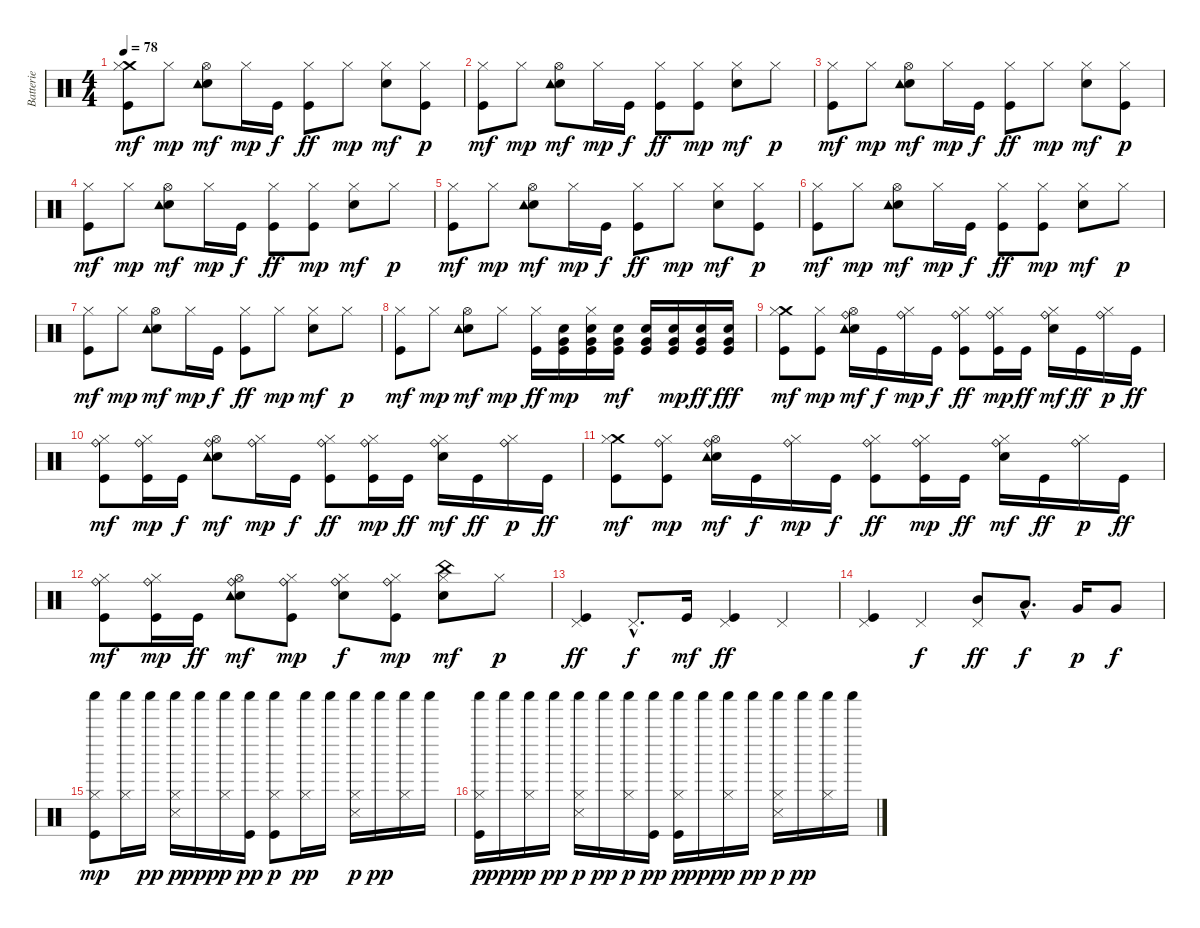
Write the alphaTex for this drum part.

\track ("Batterie" "Batterie") {instrument percussion}
\staff {score}
\articulation defaults
\ts (4 4)
\tempo 78
\clef neutral
\ks c
("Crash medium (hit)" "Kick (hit)" "Hi-Hat (closed)").8{dy mf} "Hi-Hat (closed)".8{dy mp} ("Hi-Hat (open)" "Electric Snare (hit)" "Tambourine (hit)").8{dy mf} "Hi-Hat (closed)".16{dy mp} "Kick (hit)".16{dy f} ("Kick (hit)" "Hi-Hat (closed)").8{dy ff} "Hi-Hat (closed)".8{dy mp} ("Electric Snare (hit)" "Hi-Hat (closed)").8{dy mf} ("Kick (hit)" "Hi-Hat (closed)").8{dy p} |
("Kick (hit)" "Hi-Hat (closed)").8{dy mf} "Hi-Hat (closed)".8{dy mp} ("Hi-Hat (open)" "Electric Snare (hit)" "Tambourine (hit)").8{dy mf} "Hi-Hat (closed)".16{dy mp} "Kick (hit)".16{dy f} ("Kick (hit)" "Hi-Hat (closed)").8{dy ff} ("Kick (hit)" "Hi-Hat (closed)").8{dy mp} ("Electric Snare (hit)" "Hi-Hat (closed)").8{dy mf} "Hi-Hat (closed)".8{dy p} |
("Kick (hit)" "Hi-Hat (closed)").8{dy mf} "Hi-Hat (closed)".8{dy mp} ("Hi-Hat (open)" "Electric Snare (hit)" "Tambourine (hit)").8{dy mf} "Hi-Hat (closed)".16{dy mp} "Kick (hit)".16{dy f} ("Kick (hit)" "Hi-Hat (closed)").8{dy ff} "Hi-Hat (closed)".8{dy mp} ("Electric Snare (hit)" "Hi-Hat (closed)").8{dy mf} ("Kick (hit)" "Hi-Hat (closed)").8{dy p} |
("Kick (hit)" "Hi-Hat (closed)").8{dy mf} "Hi-Hat (closed)".8{dy mp} ("Hi-Hat (open)" "Electric Snare (hit)" "Tambourine (hit)").8{dy mf} "Hi-Hat (closed)".16{dy mp} "Kick (hit)".16{dy f} ("Kick (hit)" "Hi-Hat (closed)").8{dy ff} ("Kick (hit)" "Hi-Hat (closed)").8{dy mp} ("Electric Snare (hit)" "Hi-Hat (closed)").8{dy mf} "Hi-Hat (closed)".8{dy p} |
("Kick (hit)" "Hi-Hat (closed)").8{dy mf} "Hi-Hat (closed)".8{dy mp} ("Hi-Hat (open)" "Electric Snare (hit)" "Tambourine (hit)").8{dy mf} "Hi-Hat (closed)".16{dy mp} "Kick (hit)".16{dy f} ("Kick (hit)" "Hi-Hat (closed)").8{dy ff} "Hi-Hat (closed)".8{dy mp} ("Electric Snare (hit)" "Hi-Hat (closed)").8{dy mf} ("Kick (hit)" "Hi-Hat (closed)").8{dy p} |
("Kick (hit)" "Hi-Hat (closed)").8{dy mf} "Hi-Hat (closed)".8{dy mp} ("Hi-Hat (open)" "Electric Snare (hit)" "Tambourine (hit)").8{dy mf} "Hi-Hat (closed)".16{dy mp} "Kick (hit)".16{dy f} ("Kick (hit)" "Hi-Hat (closed)").8{dy ff} ("Kick (hit)" "Hi-Hat (closed)").8{dy mp} ("Electric Snare (hit)" "Hi-Hat (closed)").8{dy mf} "Hi-Hat (closed)".8{dy p} |
("Kick (hit)" "Hi-Hat (closed)").8{dy mf} "Hi-Hat (closed)".8{dy mp} ("Hi-Hat (open)" "Electric Snare (hit)" "Tambourine (hit)").8{dy mf} "Hi-Hat (closed)".16{dy mp} "Kick (hit)".16{dy f} ("Kick (hit)" "Hi-Hat (closed)").8{dy ff} "Hi-Hat (closed)".8{dy mp} ("Electric Snare (hit)" "Hi-Hat (closed)").8{dy mf} "Hi-Hat (closed)".8{dy p} |
("Kick (hit)" "Hi-Hat (closed)").8{dy mf} "Hi-Hat (closed)".8{dy mp} ("Hi-Hat (open)" "Electric Snare (hit)" "Tambourine (hit)").8{dy mf} "Hi-Hat (closed)".8{dy mp} ("Kick (hit)" "Hi-Hat (closed)").16{dy ff} ("Very Low Tom (hit)" "Electric Snare (hit)" "Kick (hit)").16{dy mp} ("Very Low Tom (hit)" "Electric Snare (hit)" "Kick (hit)" "Hi-Hat (closed)").16 ("Very Low Tom (hit)" "Electric Snare (hit)" "Kick (hit)").16{dy mf} ("Very Low Tom (hit)" "Electric Snare (hit)" "Kick (hit)").16 ("Very Low Tom (hit)" "Electric Snare (hit)" "Kick (hit)").16{dy mp} ("Very Low Tom (hit)" "Electric Snare (hit)" "Kick (hit)").16{dy ff} ("Very Low Tom (hit)" "Electric Snare (hit)" "Kick (hit)").16{dy fff} |
("Crash medium (hit)" "Kick (hit)" "Hi-Hat (closed)").8{dy mf} ("Kick (hit)" "Hi-Hat (closed)").8{dy mp} ("Hi-Hat (open)" "Electric Snare (hit)" "Ride (bell)" "Tambourine (hit)").16{dy mf} "Kick (hit)".16{dy f} ("Ride (bell)" "Hi-Hat (closed)").16{dy mp} "Kick (hit)".16{dy f} ("Ride (bell)" "Kick (hit)" "Hi-Hat (closed)").8{dy ff} ("Ride (bell)" "Kick (hit)" "Hi-Hat (closed)").16{dy mp} "Kick (hit)".16{dy ff} ("Electric Snare (hit)" "Ride (bell)" "Hi-Hat (closed)").16{dy mf} "Kick (hit)".16{dy ff} ("Ride (bell)" "Hi-Hat (closed)").16{dy p} "Kick (hit)".16{dy ff} |
("Ride (bell)" "Kick (hit)" "Hi-Hat (closed)").8{dy mf} ("Ride (bell)" "Kick (hit)" "Hi-Hat (closed)").16{dy mp} "Kick (hit)".16{dy f} ("Hi-Hat (open)" "Electric Snare (hit)" "Ride (bell)" "Tambourine (hit)").8{dy mf} ("Ride (bell)" "Hi-Hat (closed)").16{dy mp} "Kick (hit)".16{dy f} ("Ride (bell)" "Kick (hit)" "Hi-Hat (closed)").8{dy ff} ("Ride (bell)" "Kick (hit)" "Hi-Hat (closed)").16{dy mp} "Kick (hit)".16{dy ff} ("Electric Snare (hit)" "Ride (bell)" "Hi-Hat (closed)").16{dy mf} "Kick (hit)".16{dy ff} ("Ride (bell)" "Hi-Hat (closed)").16{dy p} "Kick (hit)".16{dy ff} |
("Crash medium (hit)" "Kick (hit)" "Hi-Hat (closed)").8{dy mf} ("Ride (bell)" "Kick (hit)" "Hi-Hat (closed)").8{dy mp} ("Hi-Hat (open)" "Electric Snare (hit)" "Ride (bell)" "Tambourine (hit)").16{dy mf} "Kick (hit)".16{dy f} ("Ride (bell)" "Hi-Hat (closed)").16{dy mp} "Kick (hit)".16{dy f} ("Ride (bell)" "Kick (hit)" "Hi-Hat (closed)").8{dy ff} ("Ride (bell)" "Kick (hit)" "Hi-Hat (closed)").16{dy mp} "Kick (hit)".16{dy ff} ("Electric Snare (hit)" "Ride (bell)" "Hi-Hat (closed)").16{dy mf} "Kick (hit)".16{dy ff} ("Ride (bell)" "Hi-Hat (closed)").16{dy p} "Kick (hit)".16{dy ff} |
("Ride (bell)" "Kick (hit)" "Hi-Hat (closed)").8{dy mf} ("Ride (bell)" "Kick (hit)" "Hi-Hat (closed)").16{dy mp} "Kick (hit)".16{dy ff} ("Hi-Hat (open)" "Electric Snare (hit)" "Ride (bell)" "Tambourine (hit)").8{dy mf} ("Ride (bell)" "Kick (hit)" "Hi-Hat (closed)").8{dy mp} ("Electric Snare (hit)" "Ride (bell)" "Hi-Hat (closed)").8{dy f} ("Ride (bell)" "Kick (hit)" "Hi-Hat (closed)").8{dy mp} ("China (hit)" "Electric Snare (hit)" "Hi-Hat (closed)").8{dy mf} "Hi-Hat (closed)".8{dy p} |
("Pedal Hi-Hat (hit)" "Kick (hit)").4{dy ff} "Pedal Hi-Hat (hit)"{hac}.8{d dy f} "Kick (hit)".16{dy mf} ("Pedal Hi-Hat (hit)" "Kick (hit)").4{dy ff} "Pedal Hi-Hat (hit)".4 |
("Pedal Hi-Hat (hit)" "Kick (hit)").4 "Pedal Hi-Hat (hit)".4{dy f} ("Pedal Hi-Hat (hit)" "Mid Tom (hit)").8{dy ff} "Low Tom (hit)"{hac}.8{d dy f} "Very Low Tom (hit)".16{dy p} "Very Low Tom (hit)".8{dy f} |
("Kick (hit)" "Hi-Hat (closed)" "Shaker (hit)").8{dy mp} ("Hi-Hat (closed)" "Shaker (hit)").16 "Shaker (hit)".16{dy pp} ("Snare (side stick) 3" "Hi-Hat (closed)" "Shaker (hit)").16{dy p} "Shaker (hit)".16{dy ppp} ("Hi-Hat (closed)" "Shaker (hit)").16{dy p} ("Kick (hit)" "Shaker (hit)").16{dy pp} ("Kick (hit)" "Hi-Hat (closed)" "Shaker (hit)").8{dy p} ("Hi-Hat (closed)" "Shaker (hit)").16{dy pp} "Shaker (hit)".16 ("Snare (side stick) 3" "Hi-Hat (closed)" "Shaker (hit)").16{dy p} "Shaker (hit)".16{dy pp} ("Hi-Hat (closed)" "Shaker (hit)").16 "Shaker (hit)".16 |
("Kick (hit)" "Hi-Hat (closed)" "Shaker (hit)").16{dy p} "Shaker (hit)".16{dy ppp} ("Hi-Hat (closed)" "Shaker (hit)").16{dy p} "Shaker (hit)".16{dy pp} ("Snare (side stick) 3" "Hi-Hat (closed)" "Shaker (hit)").16{dy p} "Shaker (hit)".16{dy pp} ("Hi-Hat (closed)" "Shaker (hit)").16{dy p} ("Kick (hit)" "Shaker (hit)").16{dy pp} ("Kick (hit)" "Hi-Hat (closed)" "Shaker (hit)").16{dy p} "Shaker (hit)".16{dy ppp} ("Hi-Hat (closed)" "Shaker (hit)").16{dy p} "Shaker (hit)".16{dy pp} ("Snare (side stick) 3" "Hi-Hat (closed)" "Shaker (hit)").16{dy p} "Shaker (hit)".16{dy pp} ("Hi-Hat (closed)" "Shaker (hit)").16 "Shaker (hit)".16
